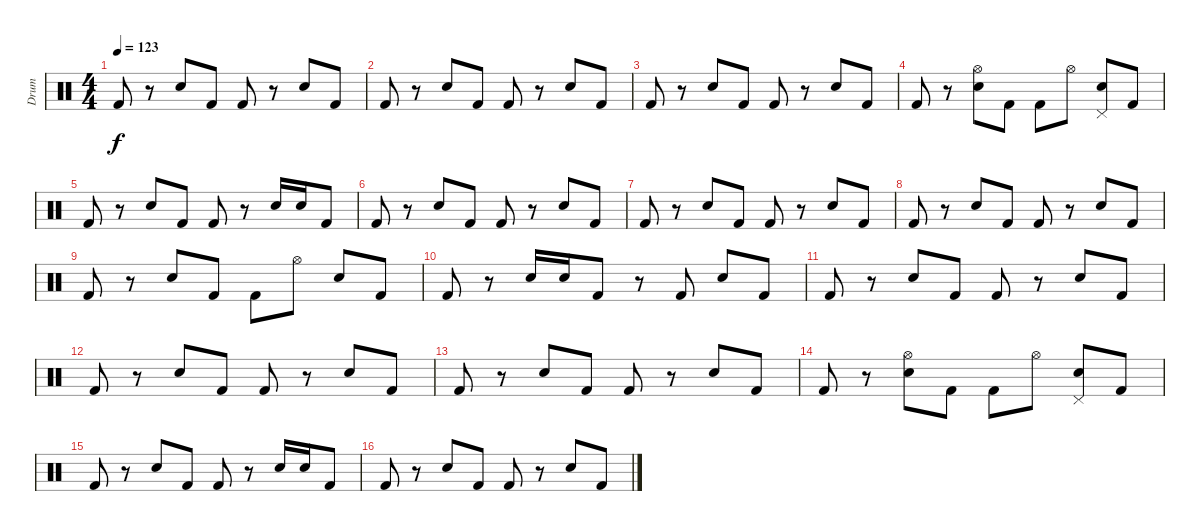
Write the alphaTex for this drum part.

\track ("Drum" "Drum") {instrument percussion}
\staff {score}
\articulation defaults
\ts (4 4)
\tempo 123
\clef neutral
\ks c "Kick (hit) 2".8{dy f}
r.8 "Electric Snare (hit)".8 "Kick (hit) 2".8 "Kick (hit) 2".8 r.8 "Electric Snare (hit)".8 "Kick (hit) 2".8 |
"Kick (hit) 2".8 r.8 "Electric Snare (hit)".8 "Kick (hit) 2".8 "Kick (hit) 2".8 r.8 "Electric Snare (hit)".8 "Kick (hit) 2".8 |
"Kick (hit) 2".8 r.8 "Electric Snare (hit)".8 "Kick (hit) 2".8 "Kick (hit) 2".8 r.8 "Electric Snare (hit)".8 "Kick (hit) 2".8 |
"Kick (hit) 2".8 r.8 ("Hi-Hat (open)" "Electric Snare (hit)").8 "Kick (hit) 2".8 "Kick (hit) 2".8 "Hi-Hat (open)".8 ("Pedal Hi-Hat (hit)" "Electric Snare (hit)").8 "Kick (hit) 2".8 |
"Kick (hit) 2".8 r.8 "Electric Snare (hit)".8 "Kick (hit) 2".8 "Kick (hit) 2".8 r.8 "Electric Snare (hit)".16 "Electric Snare (hit)".16 "Kick (hit) 2".8 |
"Kick (hit) 2".8 r.8 "Electric Snare (hit)".8 "Kick (hit) 2".8 "Kick (hit) 2".8 r.8 "Electric Snare (hit)".8 "Kick (hit) 2".8 |
"Kick (hit) 2".8 r.8 "Electric Snare (hit)".8 "Kick (hit) 2".8 "Kick (hit) 2".8 r.8 "Electric Snare (hit)".8 "Kick (hit) 2".8 |
"Kick (hit) 2".8 r.8 "Electric Snare (hit)".8 "Kick (hit) 2".8 "Kick (hit) 2".8 r.8 "Electric Snare (hit)".8 "Kick (hit) 2".8 |
"Kick (hit) 2".8 r.8 "Electric Snare (hit)".8 "Kick (hit) 2".8 "Kick (hit) 2".8 "Hi-Hat (open)".8 "Electric Snare (hit)".8 "Kick (hit) 2".8 |
"Kick (hit) 2".8 r.8 "Electric Snare (hit)".16 "Electric Snare (hit)".16 "Kick (hit) 2".8 r.8 "Kick (hit) 2".8 "Electric Snare (hit)".8 "Kick (hit) 2".8 |
"Kick (hit) 2".8 r.8 "Electric Snare (hit)".8 "Kick (hit) 2".8 "Kick (hit) 2".8 r.8 "Electric Snare (hit)".8 "Kick (hit) 2".8 |
"Kick (hit) 2".8 r.8 "Electric Snare (hit)".8 "Kick (hit) 2".8 "Kick (hit) 2".8 r.8 "Electric Snare (hit)".8 "Kick (hit) 2".8 |
"Kick (hit) 2".8 r.8 "Electric Snare (hit)".8 "Kick (hit) 2".8 "Kick (hit) 2".8 r.8 "Electric Snare (hit)".8 "Kick (hit) 2".8 |
"Kick (hit) 2".8 r.8 ("Hi-Hat (open)" "Electric Snare (hit)").8 "Kick (hit) 2".8 "Kick (hit) 2".8 "Hi-Hat (open)".8 ("Pedal Hi-Hat (hit)" "Electric Snare (hit)").8 "Kick (hit) 2".8 |
"Kick (hit) 2".8 r.8 "Electric Snare (hit)".8 "Kick (hit) 2".8 "Kick (hit) 2".8 r.8 "Electric Snare (hit)".16 "Electric Snare (hit)".16 "Kick (hit) 2".8 |
"Kick (hit) 2".8 r.8 "Electric Snare (hit)".8 "Kick (hit) 2".8 "Kick (hit) 2".8 r.8 "Electric Snare (hit)".8 "Kick (hit) 2".8
